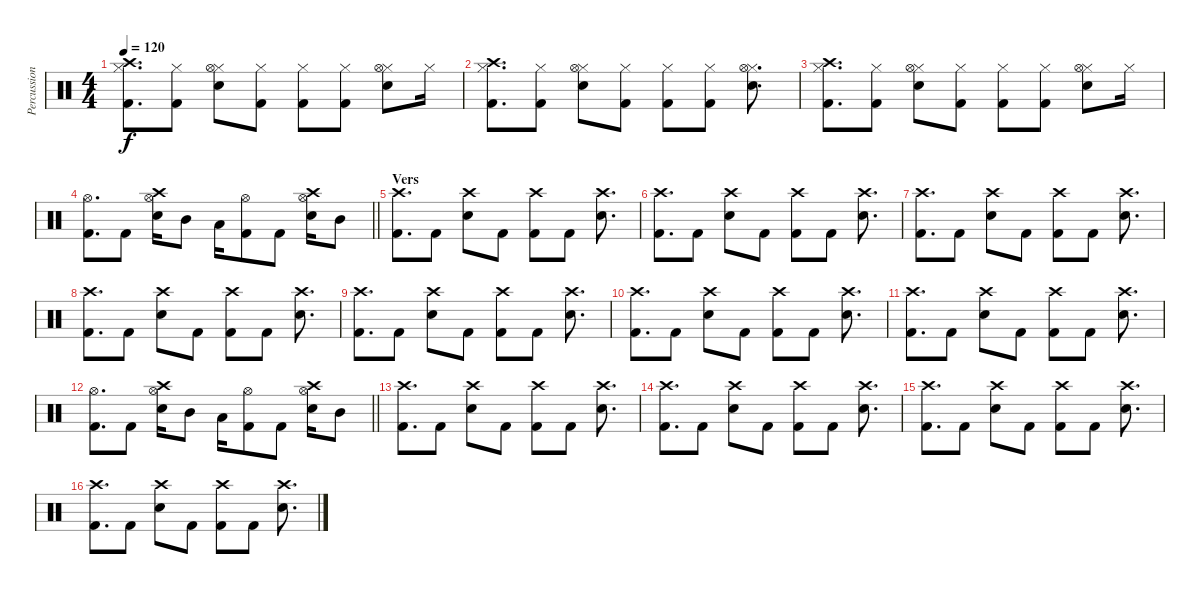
\track ("Percussion" "Percussion") {instrument percussion}
\staff {score}
\articulation defaults
\ts (4 4)
\tempo 120
\clef neutral
\ks c
("Hi-Hat (closed)" "Crash high (hit)" "Kick (hit) 2").8{d dy f} ("Hi-Hat (closed)" "Kick (hit) 2").8 ("Hi-Hat (closed)" "Hi-Hat (open)" "Electric Snare (hit)").8 ("Hi-Hat (closed)" "Kick (hit) 2").8 ("Hi-Hat (closed)" "Kick (hit) 2").8 ("Hi-Hat (closed)" "Kick (hit) 2").8 ("Hi-Hat (closed)" "Hi-Hat (open)" "Electric Snare (hit)").8 "Hi-Hat (closed)".16 |
("Hi-Hat (closed)" "Crash high (hit)" "Kick (hit) 2").8{d} ("Hi-Hat (closed)" "Kick (hit) 2").8 ("Hi-Hat (closed)" "Hi-Hat (open)" "Electric Snare (hit)").8 ("Hi-Hat (closed)" "Kick (hit) 2").8 ("Hi-Hat (closed)" "Kick (hit) 2").8 ("Hi-Hat (closed)" "Kick (hit) 2").8 ("Hi-Hat (closed)" "Hi-Hat (open)" "Electric Snare (hit)").8{d} |
("Hi-Hat (closed)" "Crash high (hit)" "Kick (hit) 2").8{d} ("Hi-Hat (closed)" "Kick (hit) 2").8 ("Hi-Hat (closed)" "Hi-Hat (open)" "Electric Snare (hit)").8 ("Hi-Hat (closed)" "Kick (hit) 2").8 ("Hi-Hat (closed)" "Kick (hit) 2").8 ("Hi-Hat (closed)" "Kick (hit) 2").8 ("Hi-Hat (closed)" "Hi-Hat (open)" "Electric Snare (hit)").8 "Hi-Hat (closed)".16 |
\barLineRight lightlight
("Hi-Hat (open)" "Kick (hit) 2").8{d} "Kick (hit) 2".8 ("Hi-Hat (open)" "Crash high (hit)" "Electric Snare (hit)").16 "Mid Tom (hit)".8 "Low Tom (hit)".16 ("Hi-Hat (open)" "Kick (hit) 2").8 "Kick (hit) 2".8 ("Hi-Hat (open)" "Crash high (hit)" "Electric Snare (hit)").16 "Mid Tom (hit)".8 |
\section ("" "Vers")
("Crash high (hit)" "Kick (hit) 2").8{d} "Kick (hit) 2".8 ("Crash high (hit)" "Electric Snare (hit)").8 "Kick (hit) 2".8 ("Crash high (hit)" "Kick (hit) 2").8 "Kick (hit) 2".8 ("Crash high (hit)" "Electric Snare (hit)").8{d} |
("Crash high (hit)" "Kick (hit) 2").8{d} "Kick (hit) 2".8 ("Crash high (hit)" "Electric Snare (hit)").8 "Kick (hit) 2".8 ("Crash high (hit)" "Kick (hit) 2").8 "Kick (hit) 2".8 ("Crash high (hit)" "Electric Snare (hit)").8{d} |
("Crash high (hit)" "Kick (hit) 2").8{d} "Kick (hit) 2".8 ("Crash high (hit)" "Electric Snare (hit)").8 "Kick (hit) 2".8 ("Crash high (hit)" "Kick (hit) 2").8 "Kick (hit) 2".8 ("Crash high (hit)" "Electric Snare (hit)").8{d} |
("Crash high (hit)" "Kick (hit) 2").8{d} "Kick (hit) 2".8 ("Crash high (hit)" "Electric Snare (hit)").8 "Kick (hit) 2".8 ("Crash high (hit)" "Kick (hit) 2").8 "Kick (hit) 2".8 ("Crash high (hit)" "Electric Snare (hit)").8{d} |
("Crash high (hit)" "Kick (hit) 2").8{d} "Kick (hit) 2".8 ("Crash high (hit)" "Electric Snare (hit)").8 "Kick (hit) 2".8 ("Crash high (hit)" "Kick (hit) 2").8 "Kick (hit) 2".8 ("Crash high (hit)" "Electric Snare (hit)").8{d} |
("Crash high (hit)" "Kick (hit) 2").8{d} "Kick (hit) 2".8 ("Crash high (hit)" "Electric Snare (hit)").8 "Kick (hit) 2".8 ("Crash high (hit)" "Kick (hit) 2").8 "Kick (hit) 2".8 ("Crash high (hit)" "Electric Snare (hit)").8{d} |
("Crash high (hit)" "Kick (hit) 2").8{d} "Kick (hit) 2".8 ("Crash high (hit)" "Electric Snare (hit)").8 "Kick (hit) 2".8 ("Crash high (hit)" "Kick (hit) 2").8 "Kick (hit) 2".8 ("Crash high (hit)" "Electric Snare (hit)").8{d} |
\barLineRight lightlight
("Hi-Hat (open)" "Kick (hit) 2").8{d} "Kick (hit) 2".8 ("Hi-Hat (open)" "Crash high (hit)" "Electric Snare (hit)").16 "Mid Tom (hit)".8 "Low Tom (hit)".16 ("Hi-Hat (open)" "Kick (hit) 2").8 "Kick (hit) 2".8 ("Hi-Hat (open)" "Crash high (hit)" "Electric Snare (hit)").16 "Mid Tom (hit)".8 |
("Crash high (hit)" "Kick (hit) 2").8{d} "Kick (hit) 2".8 ("Crash high (hit)" "Electric Snare (hit)").8 "Kick (hit) 2".8 ("Crash high (hit)" "Kick (hit) 2").8 "Kick (hit) 2".8 ("Crash high (hit)" "Electric Snare (hit)").8{d} |
("Crash high (hit)" "Kick (hit) 2").8{d} "Kick (hit) 2".8 ("Crash high (hit)" "Electric Snare (hit)").8 "Kick (hit) 2".8 ("Crash high (hit)" "Kick (hit) 2").8 "Kick (hit) 2".8 ("Crash high (hit)" "Electric Snare (hit)").8{d} |
("Crash high (hit)" "Kick (hit) 2").8{d} "Kick (hit) 2".8 ("Crash high (hit)" "Electric Snare (hit)").8 "Kick (hit) 2".8 ("Crash high (hit)" "Kick (hit) 2").8 "Kick (hit) 2".8 ("Crash high (hit)" "Electric Snare (hit)").8{d} |
("Crash high (hit)" "Kick (hit) 2").8{d} "Kick (hit) 2".8 ("Crash high (hit)" "Electric Snare (hit)").8 "Kick (hit) 2".8 ("Crash high (hit)" "Kick (hit) 2").8 "Kick (hit) 2".8 ("Crash high (hit)" "Electric Snare (hit)").8{d}
